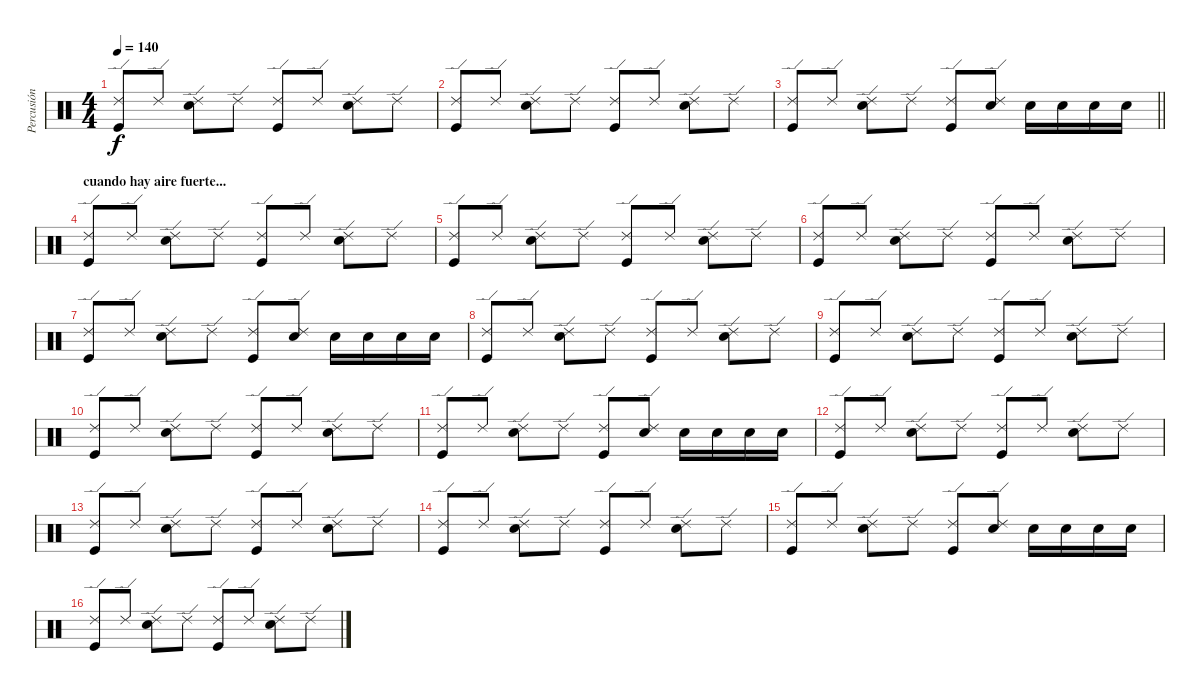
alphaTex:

\track ("Percusión" "Percusión") {instrument percussion}
\staff {score}
\articulation defaults
\ts (4 4)
\tempo 140
\clef neutral
\ks c
("Ride (edge) 2" "Kick (hit)").8{dy f} "Ride (edge) 2".8 ("Ride (edge) 2" "Snare (hit) 2").8 "Ride (edge) 2".8 ("Ride (edge) 2" "Kick (hit)").8 "Ride (edge) 2".8 ("Ride (edge) 2" "Snare (hit) 2").8 "Ride (edge) 2".8 |
("Ride (edge) 2" "Kick (hit)").8 "Ride (edge) 2".8 ("Ride (edge) 2" "Snare (hit) 2").8 "Ride (edge) 2".8 ("Ride (edge) 2" "Kick (hit)").8 "Ride (edge) 2".8 ("Ride (edge) 2" "Snare (hit) 2").8 "Ride (edge) 2".8 |
\barLineRight lightlight
("Ride (edge) 2" "Kick (hit)").8 "Ride (edge) 2".8 ("Ride (edge) 2" "Snare (hit) 2").8 "Ride (edge) 2".8 ("Ride (edge) 2" "Kick (hit)").8 ("Ride (edge) 2" "Snare (hit) 2").8 "Snare (hit) 2".16 "Snare (hit) 2".16 "Snare (hit) 2".16 "Snare (hit) 2".16 |
\section ("" "cuando hay aire fuerte...")
("Ride (edge) 2" "Kick (hit)").8 "Ride (edge) 2".8 ("Ride (edge) 2" "Snare (hit) 2").8 "Ride (edge) 2".8 ("Ride (edge) 2" "Kick (hit)").8 "Ride (edge) 2".8 ("Ride (edge) 2" "Snare (hit) 2").8 "Ride (edge) 2".8 |
("Ride (edge) 2" "Kick (hit)").8 "Ride (edge) 2".8 ("Ride (edge) 2" "Snare (hit) 2").8 "Ride (edge) 2".8 ("Ride (edge) 2" "Kick (hit)").8 "Ride (edge) 2".8 ("Ride (edge) 2" "Snare (hit) 2").8 "Ride (edge) 2".8 |
("Ride (edge) 2" "Kick (hit)").8 "Ride (edge) 2".8 ("Ride (edge) 2" "Snare (hit) 2").8 "Ride (edge) 2".8 ("Ride (edge) 2" "Kick (hit)").8 "Ride (edge) 2".8 ("Ride (edge) 2" "Snare (hit) 2").8 "Ride (edge) 2".8 |
("Ride (edge) 2" "Kick (hit)").8 "Ride (edge) 2".8 ("Ride (edge) 2" "Snare (hit) 2").8 "Ride (edge) 2".8 ("Ride (edge) 2" "Kick (hit)").8 ("Ride (edge) 2" "Snare (hit) 2").8 "Snare (hit) 2".16 "Snare (hit) 2".16 "Snare (hit) 2".16 "Snare (hit) 2".16 |
("Ride (edge) 2" "Kick (hit)").8 "Ride (edge) 2".8 ("Ride (edge) 2" "Snare (hit) 2").8 "Ride (edge) 2".8 ("Ride (edge) 2" "Kick (hit)").8 "Ride (edge) 2".8 ("Ride (edge) 2" "Snare (hit) 2").8 "Ride (edge) 2".8 |
("Ride (edge) 2" "Kick (hit)").8 "Ride (edge) 2".8 ("Ride (edge) 2" "Snare (hit) 2").8 "Ride (edge) 2".8 ("Ride (edge) 2" "Kick (hit)").8 "Ride (edge) 2".8 ("Ride (edge) 2" "Snare (hit) 2").8 "Ride (edge) 2".8 |
("Ride (edge) 2" "Kick (hit)").8 "Ride (edge) 2".8 ("Ride (edge) 2" "Snare (hit) 2").8 "Ride (edge) 2".8 ("Ride (edge) 2" "Kick (hit)").8 "Ride (edge) 2".8 ("Ride (edge) 2" "Snare (hit) 2").8 "Ride (edge) 2".8 |
("Ride (edge) 2" "Kick (hit)").8 "Ride (edge) 2".8 ("Ride (edge) 2" "Snare (hit) 2").8 "Ride (edge) 2".8 ("Ride (edge) 2" "Kick (hit)").8 ("Ride (edge) 2" "Snare (hit) 2").8 "Snare (hit) 2".16 "Snare (hit) 2".16 "Snare (hit) 2".16 "Snare (hit) 2".16 |
("Ride (edge) 2" "Kick (hit)").8 "Ride (edge) 2".8 ("Ride (edge) 2" "Snare (hit) 2").8 "Ride (edge) 2".8 ("Ride (edge) 2" "Kick (hit)").8 "Ride (edge) 2".8 ("Ride (edge) 2" "Snare (hit) 2").8 "Ride (edge) 2".8 |
("Ride (edge) 2" "Kick (hit)").8 "Ride (edge) 2".8 ("Ride (edge) 2" "Snare (hit) 2").8 "Ride (edge) 2".8 ("Ride (edge) 2" "Kick (hit)").8 "Ride (edge) 2".8 ("Ride (edge) 2" "Snare (hit) 2").8 "Ride (edge) 2".8 |
("Ride (edge) 2" "Kick (hit)").8 "Ride (edge) 2".8 ("Ride (edge) 2" "Snare (hit) 2").8 "Ride (edge) 2".8 ("Ride (edge) 2" "Kick (hit)").8 "Ride (edge) 2".8 ("Ride (edge) 2" "Snare (hit) 2").8 "Ride (edge) 2".8 |
("Ride (edge) 2" "Kick (hit)").8 "Ride (edge) 2".8 ("Ride (edge) 2" "Snare (hit) 2").8 "Ride (edge) 2".8 ("Ride (edge) 2" "Kick (hit)").8 ("Ride (edge) 2" "Snare (hit) 2").8 "Snare (hit) 2".16 "Snare (hit) 2".16 "Snare (hit) 2".16 "Snare (hit) 2".16 |
("Ride (edge) 2" "Kick (hit)").8 "Ride (edge) 2".8 ("Ride (edge) 2" "Snare (hit) 2").8 "Ride (edge) 2".8 ("Ride (edge) 2" "Kick (hit)").8 "Ride (edge) 2".8 ("Ride (edge) 2" "Snare (hit) 2").8 "Ride (edge) 2".8
